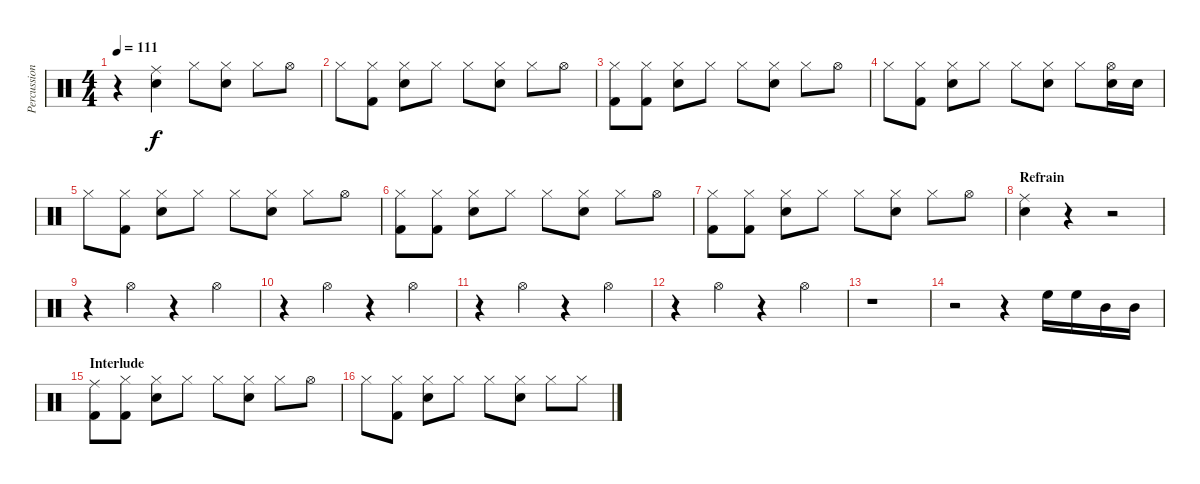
\track ("Percussions" "Percussion") {instrument percussion}
\staff {score}
\articulation defaults
\ts (4 4)
\tempo 111
\clef neutral
\ks c
r.4{dy f} ("Ride (middle)" "Snare (hit) 2").4 "Hi-Hat (closed)".8 ("Hi-Hat (closed)" "Snare (hit) 2").8 "Hi-Hat (closed)".8 "Hi-Hat (open)".8 |
"Hi-Hat (closed)".8 ("Hi-Hat (closed)" "Kick (hit) 2").8 ("Hi-Hat (closed)" "Snare (hit) 2").8 "Hi-Hat (closed)".8 "Hi-Hat (closed)".8 ("Hi-Hat (closed)" "Snare (hit) 2").8 "Hi-Hat (closed)".8 "Hi-Hat (open)".8 |
("Hi-Hat (closed)" "Kick (hit) 2").8 ("Hi-Hat (closed)" "Kick (hit) 2").8 ("Hi-Hat (closed)" "Snare (hit) 2").8 "Hi-Hat (closed)".8 "Hi-Hat (closed)".8 ("Hi-Hat (closed)" "Snare (hit) 2").8 "Hi-Hat (closed)".8 "Hi-Hat (open)".8 |
"Hi-Hat (closed)".8 ("Hi-Hat (closed)" "Kick (hit) 2").8 ("Hi-Hat (closed)" "Snare (hit) 2").8 "Hi-Hat (closed)".8 "Hi-Hat (closed)".8 ("Hi-Hat (closed)" "Snare (hit) 2").8 "Hi-Hat (closed)".8 ("Hi-Hat (open)" "Snare (hit) 2").16 "Snare (hit) 2".16 |
"Hi-Hat (closed)".8 ("Hi-Hat (closed)" "Kick (hit) 2").8 ("Hi-Hat (closed)" "Snare (hit) 2").8 "Hi-Hat (closed)".8 "Hi-Hat (closed)".8 ("Hi-Hat (closed)" "Snare (hit) 2").8 "Hi-Hat (closed)".8 "Hi-Hat (open)".8 |
("Hi-Hat (closed)" "Kick (hit) 2").8 ("Hi-Hat (closed)" "Kick (hit) 2").8 ("Hi-Hat (closed)" "Snare (hit) 2").8 "Hi-Hat (closed)".8 "Hi-Hat (closed)".8 ("Hi-Hat (closed)" "Snare (hit) 2").8 "Hi-Hat (closed)".8 "Hi-Hat (open)".8 |
("Hi-Hat (closed)" "Kick (hit) 2").8 ("Hi-Hat (closed)" "Kick (hit) 2").8 ("Hi-Hat (closed)" "Snare (hit) 2").8 "Hi-Hat (closed)".8 "Hi-Hat (closed)".8 ("Hi-Hat (closed)" "Snare (hit) 2").8 "Hi-Hat (closed)".8 "Hi-Hat (open)".8 |
\section ("" "Refrain")
("Ride (middle)" "Snare (hit) 2").4 r.4 r.2 |
r.4 "Hi-Hat (open)".4 r.4 "Hi-Hat (open)".4 |
r.4 "Hi-Hat (open)".4 r.4 "Hi-Hat (open)".4 |
r.4 "Hi-Hat (open)".4 r.4 "Hi-Hat (open)".4 |
r.4 "Hi-Hat (open)".4 r.4 "Hi-Hat (open)".4 |
r.1 |
r.2 r.4 "High Floor Tom (hit)".16 "High Floor Tom (hit)".16 "Mid Tom (hit)".16 "Mid Tom (hit)".16 |
\section ("" "Interlude")
("Ride (middle)" "Kick (hit) 2").8 ("Hi-Hat (closed)" "Kick (hit) 2").8 ("Hi-Hat (closed)" "Snare (hit) 2").8 "Hi-Hat (closed)".8 "Hi-Hat (closed)".8 ("Hi-Hat (closed)" "Snare (hit) 2").8 "Hi-Hat (closed)".8 "Hi-Hat (open)".8 |
"Hi-Hat (closed)".8 ("Hi-Hat (closed)" "Kick (hit) 2").8 ("Hi-Hat (closed)" "Snare (hit) 2").8 "Hi-Hat (closed)".8 "Hi-Hat (closed)".8 ("Hi-Hat (closed)" "Snare (hit) 2").8 "Hi-Hat (closed)".8 "Hi-Hat (closed)".8
